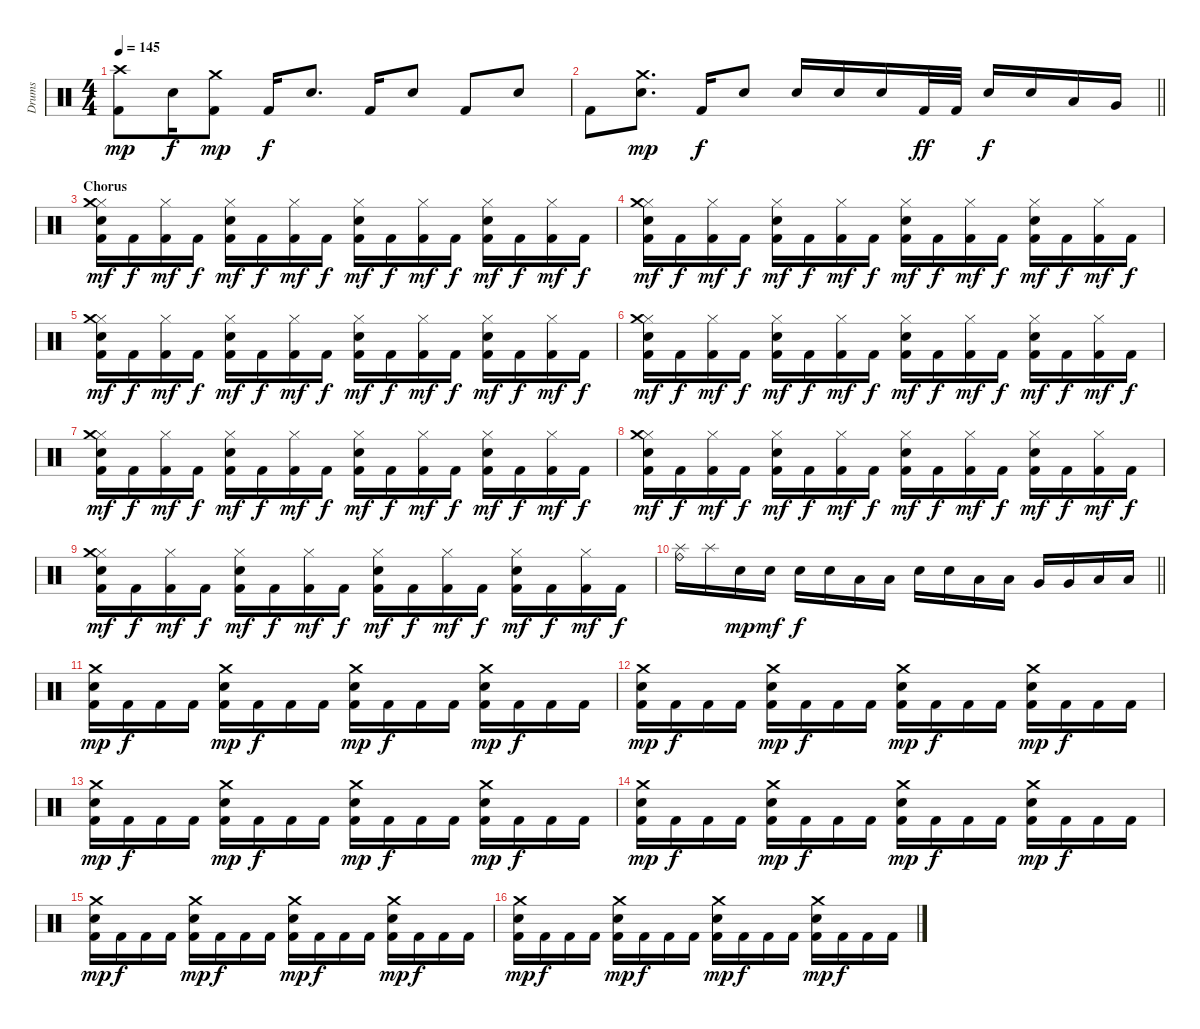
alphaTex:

\track ("Drums" "Drums") {instrument percussion}
\staff {score}
\articulation defaults
\ts (4 4)
\tempo 145
\clef neutral
\ks c
("Crash high (hit)" "Kick (hit) 2").8{dy mp} "Snare (hit) 2".16{dy f} ("Crash medium (hit)" "Kick (hit) 2").8{dy mp} "Kick (hit) 2".16{dy f} "Snare (hit) 2".8{d} "Kick (hit) 2".16 "Snare (hit) 2".8 "Kick (hit) 2".8 "Snare (hit) 2".8 |
\barLineRight lightlight "Kick (hit) 2".8
("Crash medium (hit)" "Snare (hit) 2").8{d dy mp} "Kick (hit) 2".16{dy f} "Snare (hit) 2".8 "Snare (hit) 2".16 "Snare (hit) 2".16 "Snare (hit) 2".16 "Kick (hit) 2".32{dy ff} "Kick (hit) 2".32 "Snare (hit) 2".16{dy f} "Snare (hit) 2".16 "Low Tom (hit)".16 "Very Low Tom (hit)".16 |
\section ("" "Chorus")
("Hi-Hat (closed)" "Crash medium (hit)" "Snare (hit) 2" "Kick (hit) 2").16{dy mf} "Kick (hit) 2".16{dy f} ("Hi-Hat (closed)" "Kick (hit) 2").16{dy mf} "Kick (hit) 2".16{dy f} ("Hi-Hat (closed)" "Snare (hit) 2" "Kick (hit) 2").16{dy mf} "Kick (hit) 2".16{dy f} ("Hi-Hat (closed)" "Kick (hit) 2").16{dy mf} "Kick (hit) 2".16{dy f} ("Hi-Hat (closed)" "Snare (hit) 2" "Kick (hit) 2").16{dy mf} "Kick (hit) 2".16{dy f} ("Hi-Hat (closed)" "Kick (hit) 2").16{dy mf} "Kick (hit) 2".16{dy f} ("Hi-Hat (closed)" "Snare (hit) 2" "Kick (hit) 2").16{dy mf} "Kick (hit) 2".16{dy f} ("Hi-Hat (closed)" "Kick (hit) 2").16{dy mf} "Kick (hit) 2".16{dy f} |
("Hi-Hat (closed)" "Crash medium (hit)" "Snare (hit) 2" "Kick (hit) 2").16{dy mf} "Kick (hit) 2".16{dy f} ("Hi-Hat (closed)" "Kick (hit) 2").16{dy mf} "Kick (hit) 2".16{dy f} ("Hi-Hat (closed)" "Snare (hit) 2" "Kick (hit) 2").16{dy mf} "Kick (hit) 2".16{dy f} ("Hi-Hat (closed)" "Kick (hit) 2").16{dy mf} "Kick (hit) 2".16{dy f} ("Hi-Hat (closed)" "Snare (hit) 2" "Kick (hit) 2").16{dy mf} "Kick (hit) 2".16{dy f} ("Hi-Hat (closed)" "Kick (hit) 2").16{dy mf} "Kick (hit) 2".16{dy f} ("Hi-Hat (closed)" "Snare (hit) 2" "Kick (hit) 2").16{dy mf} "Kick (hit) 2".16{dy f} ("Hi-Hat (closed)" "Kick (hit) 2").16{dy mf} "Kick (hit) 2".16{dy f} |
("Hi-Hat (closed)" "Crash medium (hit)" "Snare (hit) 2" "Kick (hit) 2").16{dy mf} "Kick (hit) 2".16{dy f} ("Hi-Hat (closed)" "Kick (hit) 2").16{dy mf} "Kick (hit) 2".16{dy f} ("Hi-Hat (closed)" "Snare (hit) 2" "Kick (hit) 2").16{dy mf} "Kick (hit) 2".16{dy f} ("Hi-Hat (closed)" "Kick (hit) 2").16{dy mf} "Kick (hit) 2".16{dy f} ("Hi-Hat (closed)" "Snare (hit) 2" "Kick (hit) 2").16{dy mf} "Kick (hit) 2".16{dy f} ("Hi-Hat (closed)" "Kick (hit) 2").16{dy mf} "Kick (hit) 2".16{dy f} ("Hi-Hat (closed)" "Snare (hit) 2" "Kick (hit) 2").16{dy mf} "Kick (hit) 2".16{dy f} ("Hi-Hat (closed)" "Kick (hit) 2").16{dy mf} "Kick (hit) 2".16{dy f} |
("Hi-Hat (closed)" "Crash medium (hit)" "Snare (hit) 2" "Kick (hit) 2").16{dy mf} "Kick (hit) 2".16{dy f} ("Hi-Hat (closed)" "Kick (hit) 2").16{dy mf} "Kick (hit) 2".16{dy f} ("Hi-Hat (closed)" "Snare (hit) 2" "Kick (hit) 2").16{dy mf} "Kick (hit) 2".16{dy f} ("Hi-Hat (closed)" "Kick (hit) 2").16{dy mf} "Kick (hit) 2".16{dy f} ("Hi-Hat (closed)" "Snare (hit) 2" "Kick (hit) 2").16{dy mf} "Kick (hit) 2".16{dy f} ("Hi-Hat (closed)" "Kick (hit) 2").16{dy mf} "Kick (hit) 2".16{dy f} ("Hi-Hat (closed)" "Snare (hit) 2" "Kick (hit) 2").16{dy mf} "Kick (hit) 2".16{dy f} ("Hi-Hat (closed)" "Kick (hit) 2").16{dy mf} "Kick (hit) 2".16{dy f} |
("Hi-Hat (closed)" "Crash medium (hit)" "Snare (hit) 2" "Kick (hit) 2").16{dy mf} "Kick (hit) 2".16{dy f} ("Hi-Hat (closed)" "Kick (hit) 2").16{dy mf} "Kick (hit) 2".16{dy f} ("Hi-Hat (closed)" "Snare (hit) 2" "Kick (hit) 2").16{dy mf} "Kick (hit) 2".16{dy f} ("Hi-Hat (closed)" "Kick (hit) 2").16{dy mf} "Kick (hit) 2".16{dy f} ("Hi-Hat (closed)" "Snare (hit) 2" "Kick (hit) 2").16{dy mf} "Kick (hit) 2".16{dy f} ("Hi-Hat (closed)" "Kick (hit) 2").16{dy mf} "Kick (hit) 2".16{dy f} ("Hi-Hat (closed)" "Snare (hit) 2" "Kick (hit) 2").16{dy mf} "Kick (hit) 2".16{dy f} ("Hi-Hat (closed)" "Kick (hit) 2").16{dy mf} "Kick (hit) 2".16{dy f} |
("Hi-Hat (closed)" "Crash medium (hit)" "Snare (hit) 2" "Kick (hit) 2").16{dy mf} "Kick (hit) 2".16{dy f} ("Hi-Hat (closed)" "Kick (hit) 2").16{dy mf} "Kick (hit) 2".16{dy f} ("Hi-Hat (closed)" "Snare (hit) 2" "Kick (hit) 2").16{dy mf} "Kick (hit) 2".16{dy f} ("Hi-Hat (closed)" "Kick (hit) 2").16{dy mf} "Kick (hit) 2".16{dy f} ("Hi-Hat (closed)" "Snare (hit) 2" "Kick (hit) 2").16{dy mf} "Kick (hit) 2".16{dy f} ("Hi-Hat (closed)" "Kick (hit) 2").16{dy mf} "Kick (hit) 2".16{dy f} ("Hi-Hat (closed)" "Snare (hit) 2" "Kick (hit) 2").16{dy mf} "Kick (hit) 2".16{dy f} ("Hi-Hat (closed)" "Kick (hit) 2").16{dy mf} "Kick (hit) 2".16{dy f} |
("Hi-Hat (closed)" "Crash medium (hit)" "Snare (hit) 2" "Kick (hit) 2").16{dy mf} "Kick (hit) 2".16{dy f} ("Hi-Hat (closed)" "Kick (hit) 2").16{dy mf} "Kick (hit) 2".16{dy f} ("Hi-Hat (closed)" "Snare (hit) 2" "Kick (hit) 2").16{dy mf} "Kick (hit) 2".16{dy f} ("Hi-Hat (closed)" "Kick (hit) 2").16{dy mf} "Kick (hit) 2".16{dy f} ("Hi-Hat (closed)" "Snare (hit) 2" "Kick (hit) 2").16{dy mf} "Kick (hit) 2".16{dy f} ("Hi-Hat (closed)" "Kick (hit) 2").16{dy mf} "Kick (hit) 2".16{dy f} ("Hi-Hat (closed)" "Snare (hit) 2" "Kick (hit) 2").16{dy mf} "Kick (hit) 2".16{dy f} ("Hi-Hat (closed)" "Kick (hit) 2").16{dy mf} "Kick (hit) 2".16{dy f} |
\barLineRight lightlight
("Splash (hit)" "Ride (bell)").16 "Splash (hit)".16 "Snare (hit) 2".16{dy mp} "Snare (hit) 2".16{dy mf} "Snare (hit) 2".16{dy f} "Snare (hit) 2".16 "Low Tom (hit)".16 "Low Tom (hit)".16 "Snare (hit) 2".16 "Snare (hit) 2".16 "Low Tom (hit)".16 "Low Tom (hit)".16 "Very Low Tom (hit)".16 "Very Low Tom (hit)".16 "Low Floor Tom (hit)".16 "Low Floor Tom (hit)".16 |
("Crash medium (hit)" "Snare (hit) 2" "Kick (hit) 2").16{dy mp} "Kick (hit) 2".16{dy f} "Kick (hit) 2".16 "Kick (hit) 2".16 ("Crash medium (hit)" "Snare (hit) 2" "Kick (hit) 2").16{dy mp} "Kick (hit) 2".16{dy f} "Kick (hit) 2".16 "Kick (hit) 2".16 ("Crash medium (hit)" "Snare (hit) 2" "Kick (hit) 2").16{dy mp} "Kick (hit) 2".16{dy f} "Kick (hit) 2".16 "Kick (hit) 2".16 ("Crash medium (hit)" "Snare (hit) 2" "Kick (hit) 2").16{dy mp} "Kick (hit) 2".16{dy f} "Kick (hit) 2".16 "Kick (hit) 2".16 |
("Crash medium (hit)" "Snare (hit) 2" "Kick (hit) 2").16{dy mp} "Kick (hit) 2".16{dy f} "Kick (hit) 2".16 "Kick (hit) 2".16 ("Crash medium (hit)" "Snare (hit) 2" "Kick (hit) 2").16{dy mp} "Kick (hit) 2".16{dy f} "Kick (hit) 2".16 "Kick (hit) 2".16 ("Crash medium (hit)" "Snare (hit) 2" "Kick (hit) 2").16{dy mp} "Kick (hit) 2".16{dy f} "Kick (hit) 2".16 "Kick (hit) 2".16 ("Crash medium (hit)" "Snare (hit) 2" "Kick (hit) 2").16{dy mp} "Kick (hit) 2".16{dy f} "Kick (hit) 2".16 "Kick (hit) 2".16 |
("Crash medium (hit)" "Snare (hit) 2" "Kick (hit) 2").16{dy mp} "Kick (hit) 2".16{dy f} "Kick (hit) 2".16 "Kick (hit) 2".16 ("Crash medium (hit)" "Snare (hit) 2" "Kick (hit) 2").16{dy mp} "Kick (hit) 2".16{dy f} "Kick (hit) 2".16 "Kick (hit) 2".16 ("Crash medium (hit)" "Snare (hit) 2" "Kick (hit) 2").16{dy mp} "Kick (hit) 2".16{dy f} "Kick (hit) 2".16 "Kick (hit) 2".16 ("Crash medium (hit)" "Snare (hit) 2" "Kick (hit) 2").16{dy mp} "Kick (hit) 2".16{dy f} "Kick (hit) 2".16 "Kick (hit) 2".16 |
("Crash medium (hit)" "Snare (hit) 2" "Kick (hit) 2").16{dy mp} "Kick (hit) 2".16{dy f} "Kick (hit) 2".16 "Kick (hit) 2".16 ("Crash medium (hit)" "Snare (hit) 2" "Kick (hit) 2").16{dy mp} "Kick (hit) 2".16{dy f} "Kick (hit) 2".16 "Kick (hit) 2".16 ("Crash medium (hit)" "Snare (hit) 2" "Kick (hit) 2").16{dy mp} "Kick (hit) 2".16{dy f} "Kick (hit) 2".16 "Kick (hit) 2".16 ("Crash medium (hit)" "Snare (hit) 2" "Kick (hit) 2").16{dy mp} "Kick (hit) 2".16{dy f} "Kick (hit) 2".16 "Kick (hit) 2".16 |
("Crash medium (hit)" "Snare (hit) 2" "Kick (hit) 2").16{dy mp} "Kick (hit) 2".16{dy f} "Kick (hit) 2".16 "Kick (hit) 2".16 ("Crash medium (hit)" "Snare (hit) 2" "Kick (hit) 2").16{dy mp} "Kick (hit) 2".16{dy f} "Kick (hit) 2".16 "Kick (hit) 2".16 ("Crash medium (hit)" "Snare (hit) 2" "Kick (hit) 2").16{dy mp} "Kick (hit) 2".16{dy f} "Kick (hit) 2".16 "Kick (hit) 2".16 ("Crash medium (hit)" "Snare (hit) 2" "Kick (hit) 2").16{dy mp} "Kick (hit) 2".16{dy f} "Kick (hit) 2".16 "Kick (hit) 2".16 |
("Crash medium (hit)" "Snare (hit) 2" "Kick (hit) 2").16{dy mp} "Kick (hit) 2".16{dy f} "Kick (hit) 2".16 "Kick (hit) 2".16 ("Crash medium (hit)" "Snare (hit) 2" "Kick (hit) 2").16{dy mp} "Kick (hit) 2".16{dy f} "Kick (hit) 2".16 "Kick (hit) 2".16 ("Crash medium (hit)" "Snare (hit) 2" "Kick (hit) 2").16{dy mp} "Kick (hit) 2".16{dy f} "Kick (hit) 2".16 "Kick (hit) 2".16 ("Crash medium (hit)" "Snare (hit) 2" "Kick (hit) 2").16{dy mp} "Kick (hit) 2".16{dy f} "Kick (hit) 2".16 "Kick (hit) 2".16
